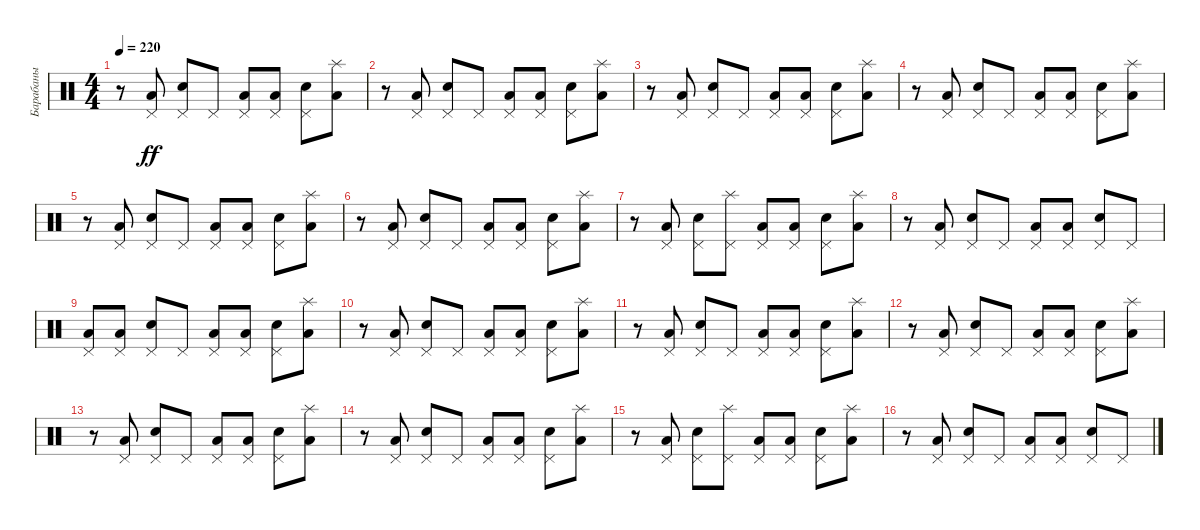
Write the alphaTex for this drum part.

\track ("Барабаны" "Барабаны") {instrument percussion}
\staff {score}
\articulation defaults
\ts (4 4)
\tempo 220
\clef neutral
\ks c
r.8{dy ff} ("Low Floor Tom (hit)" "Pedal Hi-Hat (hit)").8 ("Electric Snare (hit)" "Pedal Hi-Hat (hit)").8 "Pedal Hi-Hat (hit)".8 ("Low Floor Tom (hit)" "Pedal Hi-Hat (hit)").8 ("Low Floor Tom (hit)" "Pedal Hi-Hat (hit)").8 ("Electric Snare (hit)" "Pedal Hi-Hat (hit)").8 ("Low Floor Tom (hit)" "Splash (hit)").8 |
r.8 ("Low Floor Tom (hit)" "Pedal Hi-Hat (hit)").8 ("Electric Snare (hit)" "Pedal Hi-Hat (hit)").8 "Pedal Hi-Hat (hit)".8 ("Low Floor Tom (hit)" "Pedal Hi-Hat (hit)").8 ("Low Floor Tom (hit)" "Pedal Hi-Hat (hit)").8 ("Electric Snare (hit)" "Pedal Hi-Hat (hit)").8 ("Low Floor Tom (hit)" "Splash (hit)").8 |
r.8 ("Low Floor Tom (hit)" "Pedal Hi-Hat (hit)").8 ("Electric Snare (hit)" "Pedal Hi-Hat (hit)").8 "Pedal Hi-Hat (hit)".8 ("Low Floor Tom (hit)" "Pedal Hi-Hat (hit)").8 ("Low Floor Tom (hit)" "Pedal Hi-Hat (hit)").8 ("Electric Snare (hit)" "Pedal Hi-Hat (hit)").8 ("Low Floor Tom (hit)" "Splash (hit)").8 |
r.8 ("Low Floor Tom (hit)" "Pedal Hi-Hat (hit)").8 ("Electric Snare (hit)" "Pedal Hi-Hat (hit)").8 "Pedal Hi-Hat (hit)".8 ("Low Floor Tom (hit)" "Pedal Hi-Hat (hit)").8 ("Low Floor Tom (hit)" "Pedal Hi-Hat (hit)").8 ("Electric Snare (hit)" "Pedal Hi-Hat (hit)").8 ("Low Floor Tom (hit)" "Splash (hit)").8 |
r.8 ("Low Floor Tom (hit)" "Pedal Hi-Hat (hit)").8 ("Electric Snare (hit)" "Pedal Hi-Hat (hit)").8 "Pedal Hi-Hat (hit)".8 ("Low Floor Tom (hit)" "Pedal Hi-Hat (hit)").8 ("Low Floor Tom (hit)" "Pedal Hi-Hat (hit)").8 ("Electric Snare (hit)" "Pedal Hi-Hat (hit)").8 ("Low Floor Tom (hit)" "Splash (hit)").8 |
r.8 ("Low Floor Tom (hit)" "Pedal Hi-Hat (hit)").8 ("Electric Snare (hit)" "Pedal Hi-Hat (hit)").8 "Pedal Hi-Hat (hit)".8 ("Low Floor Tom (hit)" "Pedal Hi-Hat (hit)").8 ("Low Floor Tom (hit)" "Pedal Hi-Hat (hit)").8 ("Electric Snare (hit)" "Pedal Hi-Hat (hit)").8 ("Low Floor Tom (hit)" "Splash (hit)").8 |
r.8 ("Low Floor Tom (hit)" "Pedal Hi-Hat (hit)").8 ("Electric Snare (hit)" "Pedal Hi-Hat (hit)").8 ("Pedal Hi-Hat (hit)" "Splash (hit)").8 ("Low Floor Tom (hit)" "Pedal Hi-Hat (hit)").8 ("Low Floor Tom (hit)" "Pedal Hi-Hat (hit)").8 ("Electric Snare (hit)" "Pedal Hi-Hat (hit)").8 ("Low Floor Tom (hit)" "Splash (hit)").8 |
r.8 ("Low Floor Tom (hit)" "Pedal Hi-Hat (hit)").8 ("Electric Snare (hit)" "Pedal Hi-Hat (hit)").8 "Pedal Hi-Hat (hit)".8 ("Low Floor Tom (hit)" "Pedal Hi-Hat (hit)").8 ("Low Floor Tom (hit)" "Pedal Hi-Hat (hit)").8 ("Electric Snare (hit)" "Pedal Hi-Hat (hit)").8 "Pedal Hi-Hat (hit)".8 |
("Low Floor Tom (hit)" "Pedal Hi-Hat (hit)").8 ("Low Floor Tom (hit)" "Pedal Hi-Hat (hit)").8 ("Electric Snare (hit)" "Pedal Hi-Hat (hit)").8 "Pedal Hi-Hat (hit)".8 ("Low Floor Tom (hit)" "Pedal Hi-Hat (hit)").8 ("Low Floor Tom (hit)" "Pedal Hi-Hat (hit)").8 ("Electric Snare (hit)" "Pedal Hi-Hat (hit)").8 ("Low Floor Tom (hit)" "Splash (hit)").8 |
r.8 ("Low Floor Tom (hit)" "Pedal Hi-Hat (hit)").8 ("Electric Snare (hit)" "Pedal Hi-Hat (hit)").8 "Pedal Hi-Hat (hit)".8 ("Low Floor Tom (hit)" "Pedal Hi-Hat (hit)").8 ("Low Floor Tom (hit)" "Pedal Hi-Hat (hit)").8 ("Electric Snare (hit)" "Pedal Hi-Hat (hit)").8 ("Low Floor Tom (hit)" "Splash (hit)").8 |
r.8 ("Low Floor Tom (hit)" "Pedal Hi-Hat (hit)").8 ("Electric Snare (hit)" "Pedal Hi-Hat (hit)").8 "Pedal Hi-Hat (hit)".8 ("Low Floor Tom (hit)" "Pedal Hi-Hat (hit)").8 ("Low Floor Tom (hit)" "Pedal Hi-Hat (hit)").8 ("Electric Snare (hit)" "Pedal Hi-Hat (hit)").8 ("Low Floor Tom (hit)" "Splash (hit)").8 |
r.8 ("Low Floor Tom (hit)" "Pedal Hi-Hat (hit)").8 ("Electric Snare (hit)" "Pedal Hi-Hat (hit)").8 "Pedal Hi-Hat (hit)".8 ("Low Floor Tom (hit)" "Pedal Hi-Hat (hit)").8 ("Low Floor Tom (hit)" "Pedal Hi-Hat (hit)").8 ("Electric Snare (hit)" "Pedal Hi-Hat (hit)").8 ("Low Floor Tom (hit)" "Splash (hit)").8 |
r.8 ("Low Floor Tom (hit)" "Pedal Hi-Hat (hit)").8 ("Electric Snare (hit)" "Pedal Hi-Hat (hit)").8 "Pedal Hi-Hat (hit)".8 ("Low Floor Tom (hit)" "Pedal Hi-Hat (hit)").8 ("Low Floor Tom (hit)" "Pedal Hi-Hat (hit)").8 ("Electric Snare (hit)" "Pedal Hi-Hat (hit)").8 ("Low Floor Tom (hit)" "Splash (hit)").8 |
r.8 ("Low Floor Tom (hit)" "Pedal Hi-Hat (hit)").8 ("Electric Snare (hit)" "Pedal Hi-Hat (hit)").8 "Pedal Hi-Hat (hit)".8 ("Low Floor Tom (hit)" "Pedal Hi-Hat (hit)").8 ("Low Floor Tom (hit)" "Pedal Hi-Hat (hit)").8 ("Electric Snare (hit)" "Pedal Hi-Hat (hit)").8 ("Low Floor Tom (hit)" "Splash (hit)").8 |
r.8 ("Low Floor Tom (hit)" "Pedal Hi-Hat (hit)").8 ("Electric Snare (hit)" "Pedal Hi-Hat (hit)").8 ("Pedal Hi-Hat (hit)" "Splash (hit)").8 ("Low Floor Tom (hit)" "Pedal Hi-Hat (hit)").8 ("Low Floor Tom (hit)" "Pedal Hi-Hat (hit)").8 ("Electric Snare (hit)" "Pedal Hi-Hat (hit)").8 ("Low Floor Tom (hit)" "Splash (hit)").8 |
r.8 ("Low Floor Tom (hit)" "Pedal Hi-Hat (hit)").8 ("Electric Snare (hit)" "Pedal Hi-Hat (hit)").8 "Pedal Hi-Hat (hit)".8 ("Low Floor Tom (hit)" "Pedal Hi-Hat (hit)").8 ("Low Floor Tom (hit)" "Pedal Hi-Hat (hit)").8 ("Electric Snare (hit)" "Pedal Hi-Hat (hit)").8 "Pedal Hi-Hat (hit)".8
